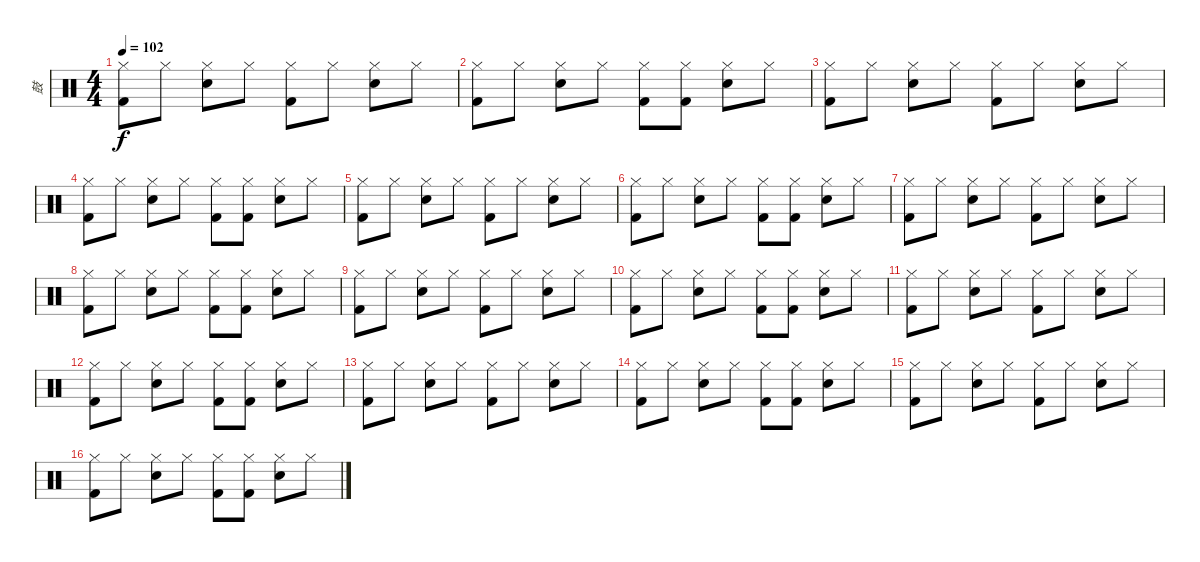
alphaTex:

\track ("鼓" "鼓") {instrument percussion}
\staff {score}
\articulation defaults
\ts (4 4)
\tempo 102
\clef neutral
\ks c
("Hi-Hat (closed)" "Kick (hit) 2").8{dy f} "Hi-Hat (closed)".8 ("Hi-Hat (closed)" "Electric Snare (hit)").8 "Hi-Hat (closed)".8 ("Hi-Hat (closed)" "Kick (hit) 2").8 "Hi-Hat (closed)".8 ("Hi-Hat (closed)" "Electric Snare (hit)").8 "Hi-Hat (closed)".8 |
("Hi-Hat (closed)" "Kick (hit) 2").8 "Hi-Hat (closed)".8 ("Hi-Hat (closed)" "Electric Snare (hit)").8 "Hi-Hat (closed)".8 ("Hi-Hat (closed)" "Kick (hit) 2").8 ("Hi-Hat (closed)" "Kick (hit) 2").8 ("Hi-Hat (closed)" "Electric Snare (hit)").8 "Hi-Hat (closed)".8 |
("Hi-Hat (closed)" "Kick (hit) 2").8 "Hi-Hat (closed)".8 ("Hi-Hat (closed)" "Electric Snare (hit)").8 "Hi-Hat (closed)".8 ("Hi-Hat (closed)" "Kick (hit) 2").8 "Hi-Hat (closed)".8 ("Hi-Hat (closed)" "Electric Snare (hit)").8 "Hi-Hat (closed)".8 |
("Hi-Hat (closed)" "Kick (hit) 2").8 "Hi-Hat (closed)".8 ("Hi-Hat (closed)" "Electric Snare (hit)").8 "Hi-Hat (closed)".8 ("Hi-Hat (closed)" "Kick (hit) 2").8 ("Hi-Hat (closed)" "Kick (hit) 2").8 ("Hi-Hat (closed)" "Electric Snare (hit)").8 "Hi-Hat (closed)".8 |
("Hi-Hat (closed)" "Kick (hit) 2").8 "Hi-Hat (closed)".8 ("Hi-Hat (closed)" "Electric Snare (hit)").8 "Hi-Hat (closed)".8 ("Hi-Hat (closed)" "Kick (hit) 2").8 "Hi-Hat (closed)".8 ("Hi-Hat (closed)" "Electric Snare (hit)").8 "Hi-Hat (closed)".8 |
("Hi-Hat (closed)" "Kick (hit) 2").8 "Hi-Hat (closed)".8 ("Hi-Hat (closed)" "Electric Snare (hit)").8 "Hi-Hat (closed)".8 ("Hi-Hat (closed)" "Kick (hit) 2").8 ("Hi-Hat (closed)" "Kick (hit) 2").8 ("Hi-Hat (closed)" "Electric Snare (hit)").8 "Hi-Hat (closed)".8 |
("Hi-Hat (closed)" "Kick (hit) 2").8 "Hi-Hat (closed)".8 ("Hi-Hat (closed)" "Electric Snare (hit)").8 "Hi-Hat (closed)".8 ("Hi-Hat (closed)" "Kick (hit) 2").8 "Hi-Hat (closed)".8 ("Hi-Hat (closed)" "Electric Snare (hit)").8 "Hi-Hat (closed)".8 |
("Hi-Hat (closed)" "Kick (hit) 2").8 "Hi-Hat (closed)".8 ("Hi-Hat (closed)" "Electric Snare (hit)").8 "Hi-Hat (closed)".8 ("Hi-Hat (closed)" "Kick (hit) 2").8 ("Hi-Hat (closed)" "Kick (hit) 2").8 ("Hi-Hat (closed)" "Electric Snare (hit)").8 "Hi-Hat (closed)".8 |
("Hi-Hat (closed)" "Kick (hit) 2").8 "Hi-Hat (closed)".8 ("Hi-Hat (closed)" "Electric Snare (hit)").8 "Hi-Hat (closed)".8 ("Hi-Hat (closed)" "Kick (hit) 2").8 "Hi-Hat (closed)".8 ("Hi-Hat (closed)" "Electric Snare (hit)").8 "Hi-Hat (closed)".8 |
("Hi-Hat (closed)" "Kick (hit) 2").8 "Hi-Hat (closed)".8 ("Hi-Hat (closed)" "Electric Snare (hit)").8 "Hi-Hat (closed)".8 ("Hi-Hat (closed)" "Kick (hit) 2").8 ("Hi-Hat (closed)" "Kick (hit) 2").8 ("Hi-Hat (closed)" "Electric Snare (hit)").8 "Hi-Hat (closed)".8 |
("Hi-Hat (closed)" "Kick (hit) 2").8 "Hi-Hat (closed)".8 ("Hi-Hat (closed)" "Electric Snare (hit)").8 "Hi-Hat (closed)".8 ("Hi-Hat (closed)" "Kick (hit) 2").8 "Hi-Hat (closed)".8 ("Hi-Hat (closed)" "Electric Snare (hit)").8 "Hi-Hat (closed)".8 |
("Hi-Hat (closed)" "Kick (hit) 2").8 "Hi-Hat (closed)".8 ("Hi-Hat (closed)" "Electric Snare (hit)").8 "Hi-Hat (closed)".8 ("Hi-Hat (closed)" "Kick (hit) 2").8 ("Hi-Hat (closed)" "Kick (hit) 2").8 ("Hi-Hat (closed)" "Electric Snare (hit)").8 "Hi-Hat (closed)".8 |
("Hi-Hat (closed)" "Kick (hit) 2").8 "Hi-Hat (closed)".8 ("Hi-Hat (closed)" "Electric Snare (hit)").8 "Hi-Hat (closed)".8 ("Hi-Hat (closed)" "Kick (hit) 2").8 "Hi-Hat (closed)".8 ("Hi-Hat (closed)" "Electric Snare (hit)").8 "Hi-Hat (closed)".8 |
("Hi-Hat (closed)" "Kick (hit) 2").8 "Hi-Hat (closed)".8 ("Hi-Hat (closed)" "Electric Snare (hit)").8 "Hi-Hat (closed)".8 ("Hi-Hat (closed)" "Kick (hit) 2").8 ("Hi-Hat (closed)" "Kick (hit) 2").8 ("Hi-Hat (closed)" "Electric Snare (hit)").8 "Hi-Hat (closed)".8 |
("Hi-Hat (closed)" "Kick (hit) 2").8 "Hi-Hat (closed)".8 ("Hi-Hat (closed)" "Electric Snare (hit)").8 "Hi-Hat (closed)".8 ("Hi-Hat (closed)" "Kick (hit) 2").8 "Hi-Hat (closed)".8 ("Hi-Hat (closed)" "Electric Snare (hit)").8 "Hi-Hat (closed)".8 |
("Hi-Hat (closed)" "Kick (hit) 2").8 "Hi-Hat (closed)".8 ("Hi-Hat (closed)" "Electric Snare (hit)").8 "Hi-Hat (closed)".8 ("Hi-Hat (closed)" "Kick (hit) 2").8 ("Hi-Hat (closed)" "Kick (hit) 2").8 ("Hi-Hat (closed)" "Electric Snare (hit)").8 "Hi-Hat (closed)".8
